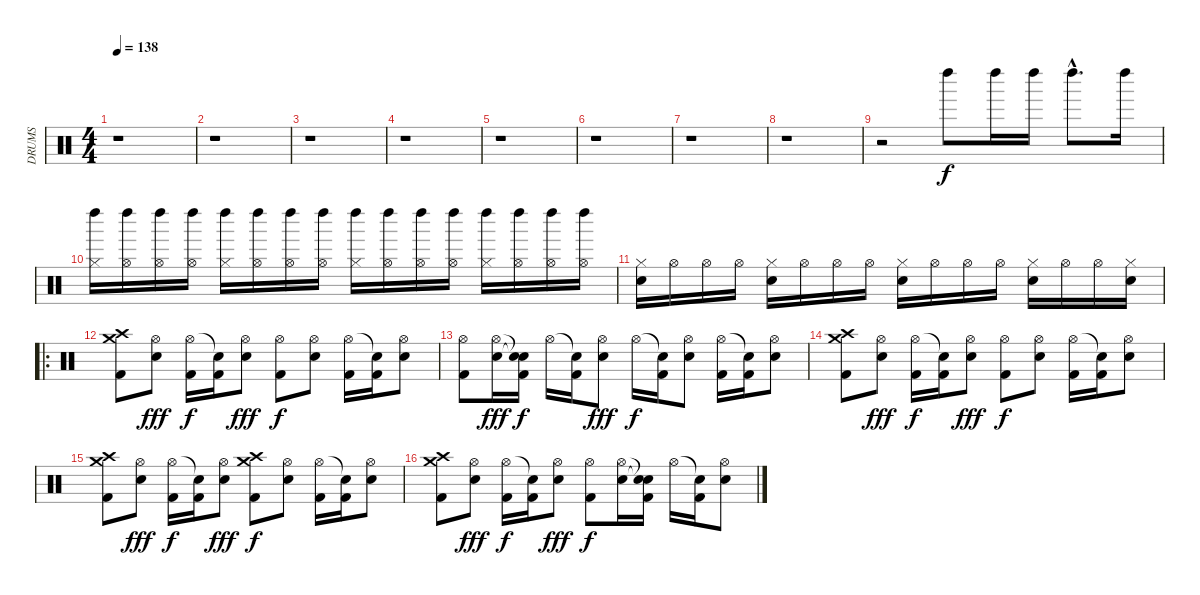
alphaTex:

\track ("DRUMS" "DRUMS") {instrument percussion}
\staff {score}
\articulation defaults
\ts (4 4)
\tempo 138
\clef neutral
\ks c
r.1{dy f} |
r.1 |
r.1 |
r.1 |
r.1 |
r.1 |
r.1 |
r.1 |
r.2 "Left Maraca (hit)".8 "Left Maraca (hit)".16 "Left Maraca (hit)".16 "Left Maraca (hit)"{hac}.8{d} "Left Maraca (hit)".16 |
("Hi-Hat (closed)" "Left Maraca (hit)").16 ("Hi-Hat (open)" "Left Maraca (hit)").16 ("Hi-Hat (open)" "Left Maraca (hit)").16 ("Hi-Hat (open)" "Left Maraca (hit)").16 ("Hi-Hat (closed)" "Left Maraca (hit)").16 ("Hi-Hat (open)" "Left Maraca (hit)").16 ("Hi-Hat (open)" "Left Maraca (hit)").16 ("Hi-Hat (open)" "Left Maraca (hit)").16 ("Hi-Hat (closed)" "Left Maraca (hit)").16 ("Hi-Hat (open)" "Left Maraca (hit)").16 ("Hi-Hat (open)" "Left Maraca (hit)").16 ("Hi-Hat (open)" "Left Maraca (hit)").16 ("Hi-Hat (closed)" "Left Maraca (hit)").16 ("Hi-Hat (open)" "Left Maraca (hit)").16 ("Hi-Hat (open)" "Left Maraca (hit)").16 ("Hi-Hat (open)" "Left Maraca (hit)").16 |
("Hi-Hat (closed)" "Snare (hit) 2").16 "Hi-Hat (open)".16 "Hi-Hat (open)".16 "Hi-Hat (open)".16 ("Hi-Hat (closed)" "Snare (hit) 2").16 "Hi-Hat (open)".16 "Hi-Hat (open)".16 "Hi-Hat (open)".16 ("Hi-Hat (closed)" "Snare (hit) 2").16 "Hi-Hat (open)".16 "Hi-Hat (open)".16 "Hi-Hat (open)".16 ("Hi-Hat (closed)" "Snare (hit) 2").16 "Hi-Hat (open)".16 "Hi-Hat (open)".16 ("Hi-Hat (closed)" "Snare (hit) 2").16 |
\ro
("Crash medium (hit)" "Crash high (hit)" "Kick (hit) 2").8 ("Hi-Hat (open)" "Electric Snare (hit)").8{dy fff} ("Hi-Hat (open)" "Kick (hit) 2").16{dy f} ("Snare (hit)"{t} "Kick (hit) 2").16 ("Hi-Hat (open)" "Electric Snare (hit)").8{dy fff} ("Hi-Hat (open)" "Kick (hit) 2").8{dy f} ("Hi-Hat (open)" "Electric Snare (hit)").8 ("Hi-Hat (open)" "Kick (hit) 2").16 ("Snare (hit)"{t} "Kick (hit) 2").16 ("Hi-Hat (open)" "Electric Snare (hit)").8 |
("Hi-Hat (open)" "Kick (hit) 2").8 ("Hi-Hat (open)" "Electric Snare (hit)").16{dy fff} ("Snare (hit)"{t} "Snare (hit)"{t} "Kick (hit) 2").16{dy f} "Hi-Hat (open)".16 ("Snare (hit)"{t} "Kick (hit) 2").16 ("Hi-Hat (open)" "Electric Snare (hit)").8{dy fff} "Hi-Hat (open)".16{dy f} ("Snare (hit)"{t} "Kick (hit) 2").16 ("Hi-Hat (open)" "Electric Snare (hit)").8 ("Hi-Hat (open)" "Kick (hit) 2").16 ("Snare (hit)"{t} "Kick (hit) 2").16 ("Hi-Hat (open)" "Electric Snare (hit)").8 |
("Crash high (hit)" "Crash medium (hit)" "Kick (hit) 2").8 ("Hi-Hat (open)" "Electric Snare (hit)").8{dy fff} ("Hi-Hat (open)" "Kick (hit) 2").16{dy f} ("Snare (hit)"{t} "Kick (hit) 2").16 ("Hi-Hat (open)" "Electric Snare (hit)").8{dy fff} ("Hi-Hat (open)" "Kick (hit) 2").8{dy f} ("Hi-Hat (open)" "Electric Snare (hit)").8 ("Hi-Hat (open)" "Kick (hit) 2").16 ("Snare (hit)"{t} "Kick (hit) 2").16 ("Hi-Hat (open)" "Electric Snare (hit)").8 |
("Crash high (hit)" "Crash medium (hit)" "Kick (hit) 2").8 ("Hi-Hat (open)" "Electric Snare (hit)").8{dy fff} ("Hi-Hat (open)" "Kick (hit) 2").16{dy f} ("Snare (hit)"{t} "Kick (hit) 2").16 ("Hi-Hat (open)" "Electric Snare (hit)").8{dy fff} ("Crash high (hit)" "Crash medium (hit)" "Kick (hit) 2").8{dy f} ("Hi-Hat (open)" "Electric Snare (hit)").8 ("Hi-Hat (open)" "Kick (hit) 2").16 ("Snare (hit)"{t} "Kick (hit) 2").16 ("Hi-Hat (open)" "Electric Snare (hit)").8 |
("Crash high (hit)" "Crash medium (hit)" "Kick (hit) 2").8 ("Hi-Hat (open)" "Electric Snare (hit)").8{dy fff} ("Hi-Hat (open)" "Kick (hit) 2").16{dy f} ("Snare (hit)"{t} "Kick (hit) 2").16 ("Hi-Hat (open)" "Electric Snare (hit)").8{dy fff} ("Hi-Hat (open)" "Kick (hit) 2").8{dy f} ("Hi-Hat (open)" "Electric Snare (hit)").16 ("Snare (hit)"{t} "Snare (hit)"{t} "Kick (hit) 2").16 "Hi-Hat (open)".16 ("Snare (hit)"{t} "Kick (hit) 2").16 ("Hi-Hat (open)" "Electric Snare (hit)").8
